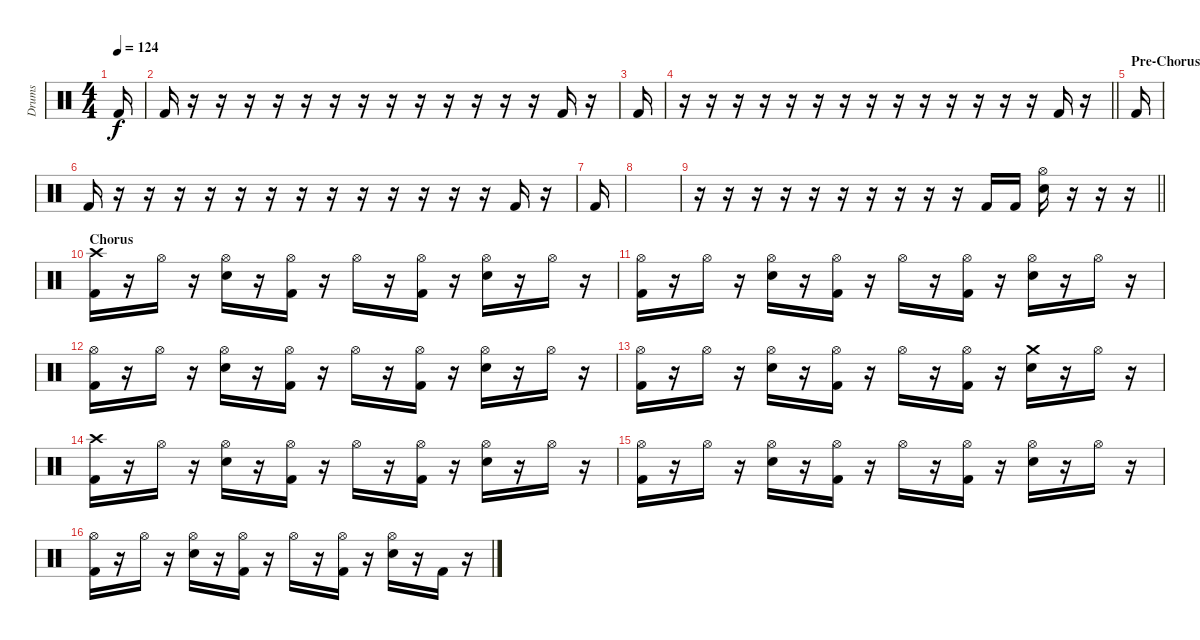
\track ("Drums" "Drums") {instrument percussion}
\staff {score}
\articulation defaults
\ts (4 4)
\tempo 124
\clef neutral
\ks c "Kick (hit) 2".16{dy f}
|
"Kick (hit) 2".16 r.16 r.16 r.16 r.16 r.16 r.16 r.16 r.16 r.16 r.16 r.16 r.16 r.16 "Kick (hit) 2".16 r.16 |
"Kick (hit) 2".16 |
\barLineRight lightlight
r.16 r.16 r.16 r.16 r.16 r.16 r.16 r.16 r.16 r.16 r.16 r.16 r.16 r.16 "Kick (hit) 2".16 r.16 |
\section ("" "Pre-Chorus")
"Kick (hit) 2".16 |
"Kick (hit) 2".16 r.16 r.16 r.16 r.16 r.16 r.16 r.16 r.16 r.16 r.16 r.16 r.16 r.16 "Kick (hit) 2".16 r.16 |
"Kick (hit) 2".16 |
|
\barLineRight lightlight
r.16 r.16 r.16 r.16 r.16 r.16 r.16 r.16 r.16 r.16 "Kick (hit) 2".16 "Kick (hit) 2".16 ("Hi-Hat (open)" "Snare (hit) 2").16 r.16 r.16 r.16 |
\section ("" "Chorus")
("Crash high (hit)" "Kick (hit) 2").16 r.16 "Hi-Hat (open)".16 r.16 ("Hi-Hat (open)" "Snare (hit) 2").16 r.16 ("Hi-Hat (open)" "Kick (hit) 2").16 r.16 "Hi-Hat (open)".16 r.16 ("Hi-Hat (open)" "Kick (hit) 2").16 r.16 ("Hi-Hat (open)" "Snare (hit) 2").16 r.16 "Hi-Hat (open)".16 r.16 |
("Hi-Hat (open)" "Kick (hit) 2").16 r.16 "Hi-Hat (open)".16 r.16 ("Hi-Hat (open)" "Snare (hit) 2").16 r.16 ("Hi-Hat (open)" "Kick (hit) 2").16 r.16 "Hi-Hat (open)".16 r.16 ("Hi-Hat (open)" "Kick (hit) 2").16 r.16 ("Hi-Hat (open)" "Snare (hit) 2").16 r.16 "Hi-Hat (open)".16 r.16 |
("Hi-Hat (open)" "Kick (hit) 2").16 r.16 "Hi-Hat (open)".16 r.16 ("Hi-Hat (open)" "Snare (hit) 2").16 r.16 ("Hi-Hat (open)" "Kick (hit) 2").16 r.16 "Hi-Hat (open)".16 r.16 ("Hi-Hat (open)" "Kick (hit) 2").16 r.16 ("Hi-Hat (open)" "Snare (hit) 2").16 r.16 "Hi-Hat (open)".16 r.16 |
("Hi-Hat (open)" "Kick (hit) 2").16 r.16 "Hi-Hat (open)".16 r.16 ("Hi-Hat (open)" "Snare (hit) 2").16 r.16 ("Hi-Hat (open)" "Kick (hit) 2").16 r.16 "Hi-Hat (open)".16 r.16 ("Hi-Hat (open)" "Kick (hit) 2").16 r.16 ("Crash medium (hit)" "Snare (hit) 2").16 r.16 "Hi-Hat (open)".16 r.16 |
("Crash high (hit)" "Kick (hit) 2").16 r.16 "Hi-Hat (open)".16 r.16 ("Hi-Hat (open)" "Snare (hit) 2").16 r.16 ("Hi-Hat (open)" "Kick (hit) 2").16 r.16 "Hi-Hat (open)".16 r.16 ("Hi-Hat (open)" "Kick (hit) 2").16 r.16 ("Hi-Hat (open)" "Snare (hit) 2").16 r.16 "Hi-Hat (open)".16 r.16 |
("Hi-Hat (open)" "Kick (hit) 2").16 r.16 "Hi-Hat (open)".16 r.16 ("Hi-Hat (open)" "Snare (hit) 2").16 r.16 ("Hi-Hat (open)" "Kick (hit) 2").16 r.16 "Hi-Hat (open)".16 r.16 ("Hi-Hat (open)" "Kick (hit) 2").16 r.16 ("Hi-Hat (open)" "Snare (hit) 2").16 r.16 "Hi-Hat (open)".16 r.16 |
("Hi-Hat (open)" "Kick (hit) 2").16 r.16 "Hi-Hat (open)".16 r.16 ("Hi-Hat (open)" "Snare (hit) 2").16 r.16 ("Hi-Hat (open)" "Kick (hit) 2").16 r.16 "Hi-Hat (open)".16 r.16 ("Hi-Hat (open)" "Kick (hit) 2").16 r.16 ("Hi-Hat (open)" "Snare (hit) 2").16 r.16 "Kick (hit) 2".16 r.16
